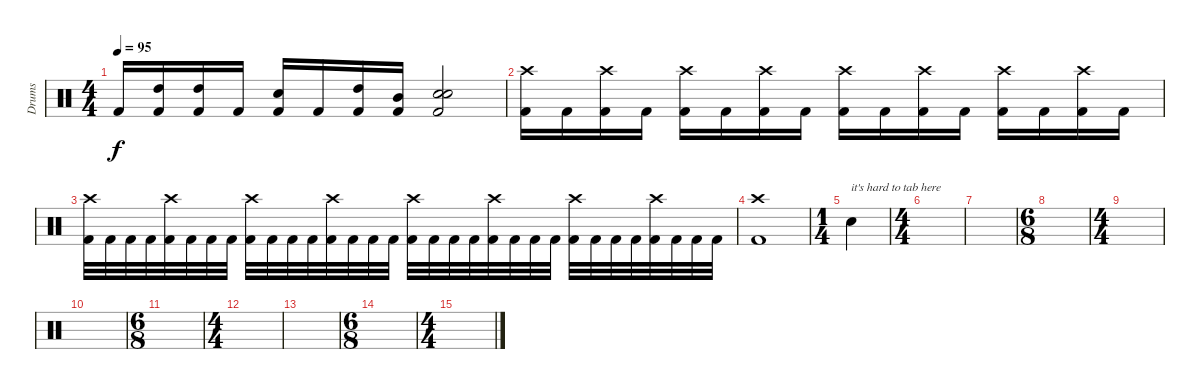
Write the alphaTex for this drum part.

\track ("Drums" "Drums") {instrument percussion}
\staff {score}
\articulation defaults
\ts (4 4)
\tempo 95
\clef neutral
\ks c "Kick (hit) 2".16{dy f}
("High Tom (hit)" "Kick (hit) 2").16 ("High Tom (hit)" "Kick (hit) 2").16 "Kick (hit) 2".16 ("Electric Snare (hit)" "Kick (hit) 2").16 "Kick (hit) 2".16 ("High Tom (hit)" "Kick (hit) 2").16 ("Mid Tom (hit)" "Kick (hit) 2").16 ("Electric Snare (hit)" "Electric Snare (hit)" "Kick (hit) 2").2 |
("Crash high (hit)" "Kick (hit) 2").16 "Kick (hit) 2".16 ("Crash high (hit)" "Kick (hit) 2").16 "Kick (hit) 2".16 ("Crash high (hit)" "Kick (hit) 2").16 "Kick (hit) 2".16 ("Crash high (hit)" "Kick (hit) 2").16 "Kick (hit) 2".16 ("Crash high (hit)" "Kick (hit) 2").16 "Kick (hit) 2".16 ("Crash high (hit)" "Kick (hit) 2").16 "Kick (hit) 2".16 ("Crash high (hit)" "Kick (hit) 2").16 "Kick (hit) 2".16 ("Crash high (hit)" "Kick (hit) 2").16 "Kick (hit) 2".16 |
("Crash high (hit)" "Kick (hit) 2").32 "Kick (hit) 2".32 "Kick (hit) 2".32 "Kick (hit) 2".32 ("Crash high (hit)" "Kick (hit) 2").32 "Kick (hit) 2".32 "Kick (hit) 2".32 "Kick (hit) 2".32 ("Crash high (hit)" "Kick (hit) 2").32 "Kick (hit) 2".32 "Kick (hit) 2".32 "Kick (hit) 2".32 ("Crash high (hit)" "Kick (hit) 2").32 "Kick (hit) 2".32 "Kick (hit) 2".32 "Kick (hit) 2".32 ("Crash high (hit)" "Kick (hit) 2").32 "Kick (hit) 2".32 "Kick (hit) 2".32 "Kick (hit) 2".32 ("Crash high (hit)" "Kick (hit) 2").32 "Kick (hit) 2".32 "Kick (hit) 2".32 "Kick (hit) 2".32 ("Crash high (hit)" "Kick (hit) 2").32 "Kick (hit) 2".32 "Kick (hit) 2".32 "Kick (hit) 2".32 ("Crash high (hit)" "Kick (hit) 2").32 "Kick (hit) 2".32 "Kick (hit) 2".32 "Kick (hit) 2".32 |
("Crash high (hit)" "Kick (hit) 2").1 |
\ts (1 4)
"Electric Snare (hit)".4{txt "it's hard to tab here"} |
\ts (4 4)
|
|
\ts (6 8)
|
\ts (4 4)
|
|
\ts (6 8)
|
\ts (4 4)
|
|
\ts (6 8)
|
\ts (4 4)
